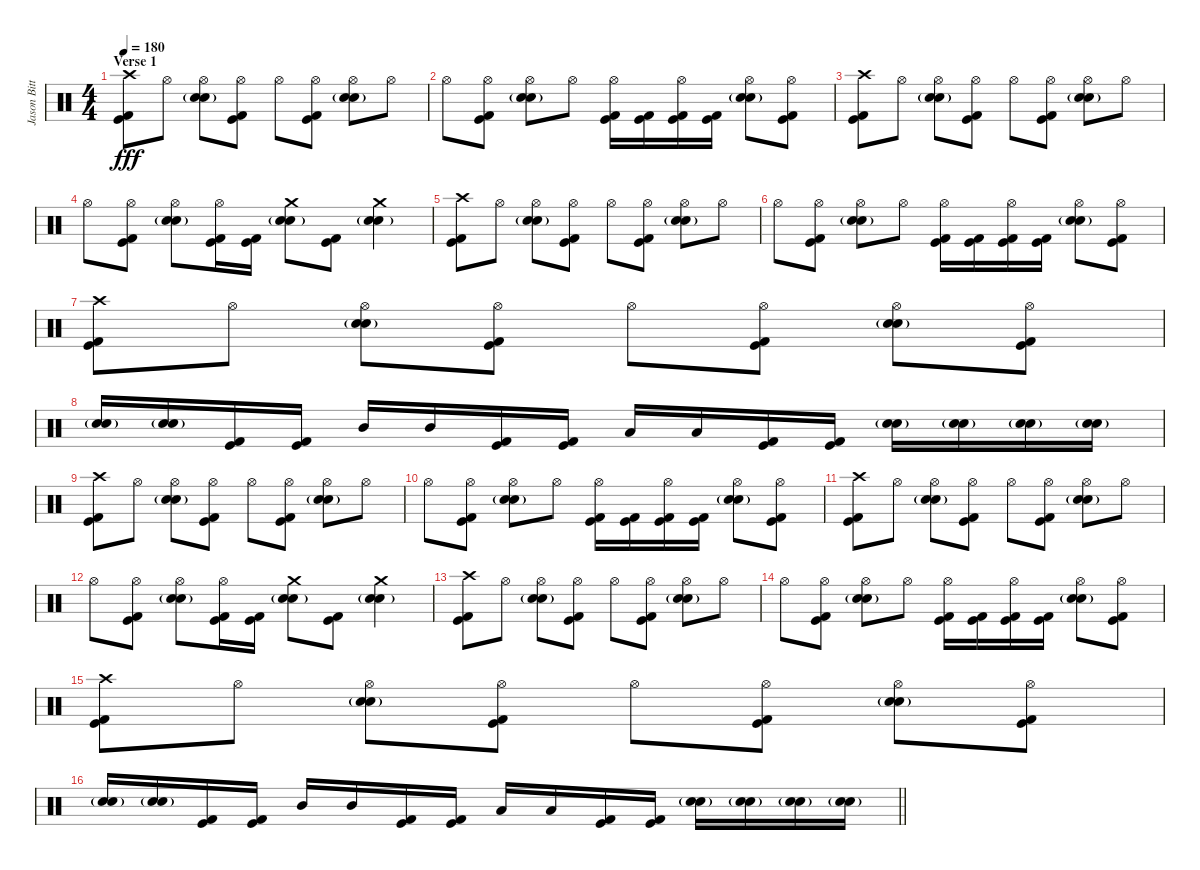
\track ("Jason Bittner" "Jason Bitt") {instrument percussion}
\staff {score}
\articulation defaults
\ts (4 4)
\section ("" "Verse 1")
\tempo 180
\clef neutral
\ks c
("Crash high (hit)" "Kick (hit)" "Kick (hit) 2").8{dy fff} "Hi-Hat (open)".8 ("Hi-Hat (open)" "Snare (hit) 2"{g} "Electric Snare (hit)").8 ("Hi-Hat (open)" "Kick (hit)" "Kick (hit) 2").8 "Hi-Hat (open)".8 ("Hi-Hat (open)" "Kick (hit)" "Kick (hit) 2").8 ("Hi-Hat (open)" "Snare (hit) 2"{g} "Electric Snare (hit)").8 "Hi-Hat (open)".8 |
"Hi-Hat (open)".8 ("Hi-Hat (open)" "Kick (hit)" "Kick (hit) 2").8 ("Hi-Hat (open)" "Snare (hit) 2"{g} "Electric Snare (hit)").8 "Hi-Hat (open)".8 ("Hi-Hat (open)" "Kick (hit)" "Kick (hit) 2").16 ("Kick (hit)" "Kick (hit) 2").16 ("Hi-Hat (open)" "Kick (hit)" "Kick (hit) 2").16 ("Kick (hit)" "Kick (hit) 2").16 ("Hi-Hat (open)" "Snare (hit) 2"{g} "Electric Snare (hit)").8 ("Hi-Hat (open)" "Kick (hit)" "Kick (hit) 2").8 |
("Crash high (hit)" "Kick (hit)" "Kick (hit) 2").8 "Hi-Hat (open)".8 ("Hi-Hat (open)" "Snare (hit) 2"{g} "Electric Snare (hit)").8 ("Hi-Hat (open)" "Kick (hit)" "Kick (hit) 2").8 "Hi-Hat (open)".8 ("Hi-Hat (open)" "Kick (hit)" "Kick (hit) 2").8 ("Hi-Hat (open)" "Snare (hit) 2"{g} "Electric Snare (hit)").8 "Hi-Hat (open)".8 |
"Hi-Hat (open)".8 ("Hi-Hat (open)" "Kick (hit)" "Kick (hit) 2").8 ("Hi-Hat (open)" "Snare (hit) 2"{g} "Electric Snare (hit)").8 ("Hi-Hat (open)" "Kick (hit)" "Kick (hit) 2").16 ("Kick (hit)" "Kick (hit) 2").16 ("Crash medium (hit)" "Snare (hit) 2"{g} "Electric Snare (hit)").8 ("Kick (hit)" "Kick (hit) 2").8 ("Crash medium (hit)" "Snare (hit) 2"{g} "Electric Snare (hit)").4 |
("Crash high (hit)" "Kick (hit)" "Kick (hit) 2").8 "Hi-Hat (open)".8 ("Hi-Hat (open)" "Snare (hit) 2"{g} "Electric Snare (hit)").8 ("Hi-Hat (open)" "Kick (hit)" "Kick (hit) 2").8 "Hi-Hat (open)".8 ("Hi-Hat (open)" "Kick (hit)" "Kick (hit) 2").8 ("Hi-Hat (open)" "Snare (hit) 2"{g} "Electric Snare (hit)").8 "Hi-Hat (open)".8 |
"Hi-Hat (open)".8 ("Hi-Hat (open)" "Kick (hit)" "Kick (hit) 2").8 ("Hi-Hat (open)" "Snare (hit) 2"{g} "Electric Snare (hit)").8 "Hi-Hat (open)".8 ("Hi-Hat (open)" "Kick (hit)" "Kick (hit) 2").16 ("Kick (hit)" "Kick (hit) 2").16 ("Hi-Hat (open)" "Kick (hit)" "Kick (hit) 2").16 ("Kick (hit)" "Kick (hit) 2").16 ("Hi-Hat (open)" "Snare (hit) 2"{g} "Electric Snare (hit)").8 ("Hi-Hat (open)" "Kick (hit)" "Kick (hit) 2").8 |
("Crash high (hit)" "Kick (hit)" "Kick (hit) 2").8 "Hi-Hat (open)".8 ("Hi-Hat (open)" "Snare (hit) 2"{g} "Electric Snare (hit)").8 ("Hi-Hat (open)" "Kick (hit)" "Kick (hit) 2").8 "Hi-Hat (open)".8 ("Hi-Hat (open)" "Kick (hit)" "Kick (hit) 2").8 ("Hi-Hat (open)" "Snare (hit) 2"{g} "Electric Snare (hit)").8 ("Hi-Hat (open)" "Kick (hit)" "Kick (hit) 2").8 |
("Snare (hit) 2"{g} "Electric Snare (hit)").16 ("Snare (hit) 2"{g} "Electric Snare (hit)").16 ("Kick (hit)" "Kick (hit) 2").16 ("Kick (hit)" "Kick (hit) 2").16 "Mid Tom (hit)".16 "Mid Tom (hit)".16 ("Kick (hit)" "Kick (hit) 2").16 ("Kick (hit)" "Kick (hit) 2").16 "Low Tom (hit)".16 "Low Tom (hit)".16 ("Kick (hit)" "Kick (hit) 2").16 ("Kick (hit)" "Kick (hit) 2").16 ("Snare (hit) 2"{g} "Electric Snare (hit)").16 ("Snare (hit) 2"{g} "Electric Snare (hit)").16 ("Snare (hit) 2"{g} "Electric Snare (hit)").16 ("Snare (hit) 2"{g} "Electric Snare (hit)").16 |
("Crash high (hit)" "Kick (hit)" "Kick (hit) 2").8 "Hi-Hat (open)".8 ("Hi-Hat (open)" "Snare (hit) 2"{g} "Electric Snare (hit)").8 ("Hi-Hat (open)" "Kick (hit)" "Kick (hit) 2").8 "Hi-Hat (open)".8 ("Hi-Hat (open)" "Kick (hit)" "Kick (hit) 2").8 ("Hi-Hat (open)" "Snare (hit) 2"{g} "Electric Snare (hit)").8 "Hi-Hat (open)".8 |
"Hi-Hat (open)".8 ("Hi-Hat (open)" "Kick (hit)" "Kick (hit) 2").8 ("Hi-Hat (open)" "Snare (hit) 2"{g} "Electric Snare (hit)").8 "Hi-Hat (open)".8 ("Hi-Hat (open)" "Kick (hit)" "Kick (hit) 2").16 ("Kick (hit)" "Kick (hit) 2").16 ("Hi-Hat (open)" "Kick (hit)" "Kick (hit) 2").16 ("Kick (hit)" "Kick (hit) 2").16 ("Hi-Hat (open)" "Snare (hit) 2"{g} "Electric Snare (hit)").8 ("Hi-Hat (open)" "Kick (hit)" "Kick (hit) 2").8 |
("Crash high (hit)" "Kick (hit)" "Kick (hit) 2").8 "Hi-Hat (open)".8 ("Hi-Hat (open)" "Snare (hit) 2"{g} "Electric Snare (hit)").8 ("Hi-Hat (open)" "Kick (hit)" "Kick (hit) 2").8 "Hi-Hat (open)".8 ("Hi-Hat (open)" "Kick (hit)" "Kick (hit) 2").8 ("Hi-Hat (open)" "Snare (hit) 2"{g} "Electric Snare (hit)").8 "Hi-Hat (open)".8 |
"Hi-Hat (open)".8 ("Hi-Hat (open)" "Kick (hit)" "Kick (hit) 2").8 ("Hi-Hat (open)" "Snare (hit) 2"{g} "Electric Snare (hit)").8 ("Hi-Hat (open)" "Kick (hit)" "Kick (hit) 2").16 ("Kick (hit)" "Kick (hit) 2").16 ("Crash medium (hit)" "Snare (hit) 2"{g} "Electric Snare (hit)").8 ("Kick (hit)" "Kick (hit) 2").8 ("Crash medium (hit)" "Snare (hit) 2"{g} "Electric Snare (hit)").4 |
("Crash high (hit)" "Kick (hit)" "Kick (hit) 2").8 "Hi-Hat (open)".8 ("Hi-Hat (open)" "Snare (hit) 2"{g} "Electric Snare (hit)").8 ("Hi-Hat (open)" "Kick (hit)" "Kick (hit) 2").8 "Hi-Hat (open)".8 ("Hi-Hat (open)" "Kick (hit)" "Kick (hit) 2").8 ("Hi-Hat (open)" "Snare (hit) 2"{g} "Electric Snare (hit)").8 "Hi-Hat (open)".8 |
"Hi-Hat (open)".8 ("Hi-Hat (open)" "Kick (hit)" "Kick (hit) 2").8 ("Hi-Hat (open)" "Snare (hit) 2"{g} "Electric Snare (hit)").8 "Hi-Hat (open)".8 ("Hi-Hat (open)" "Kick (hit)" "Kick (hit) 2").16 ("Kick (hit)" "Kick (hit) 2").16 ("Hi-Hat (open)" "Kick (hit)" "Kick (hit) 2").16 ("Kick (hit)" "Kick (hit) 2").16 ("Hi-Hat (open)" "Snare (hit) 2"{g} "Electric Snare (hit)").8 ("Hi-Hat (open)" "Kick (hit)" "Kick (hit) 2").8 |
("Crash high (hit)" "Kick (hit)" "Kick (hit) 2").8 "Hi-Hat (open)".8 ("Hi-Hat (open)" "Snare (hit) 2"{g} "Electric Snare (hit)").8 ("Hi-Hat (open)" "Kick (hit)" "Kick (hit) 2").8 "Hi-Hat (open)".8 ("Hi-Hat (open)" "Kick (hit)" "Kick (hit) 2").8 ("Hi-Hat (open)" "Snare (hit) 2"{g} "Electric Snare (hit)").8 ("Hi-Hat (open)" "Kick (hit)" "Kick (hit) 2").8 |
\barLineRight lightlight
("Snare (hit) 2"{g} "Electric Snare (hit)").16 ("Snare (hit) 2"{g} "Electric Snare (hit)").16 ("Kick (hit)" "Kick (hit) 2").16 ("Kick (hit)" "Kick (hit) 2").16 "Mid Tom (hit)".16 "Mid Tom (hit)".16 ("Kick (hit)" "Kick (hit) 2").16 ("Kick (hit)" "Kick (hit) 2").16 "Low Tom (hit)".16 "Low Tom (hit)".16 ("Kick (hit)" "Kick (hit) 2").16 ("Kick (hit)" "Kick (hit) 2").16 ("Snare (hit) 2"{g} "Electric Snare (hit)").16 ("Snare (hit) 2"{g} "Electric Snare (hit)").16 ("Snare (hit) 2"{g} "Electric Snare (hit)").16 ("Snare (hit) 2"{g} "Electric Snare (hit)").16
